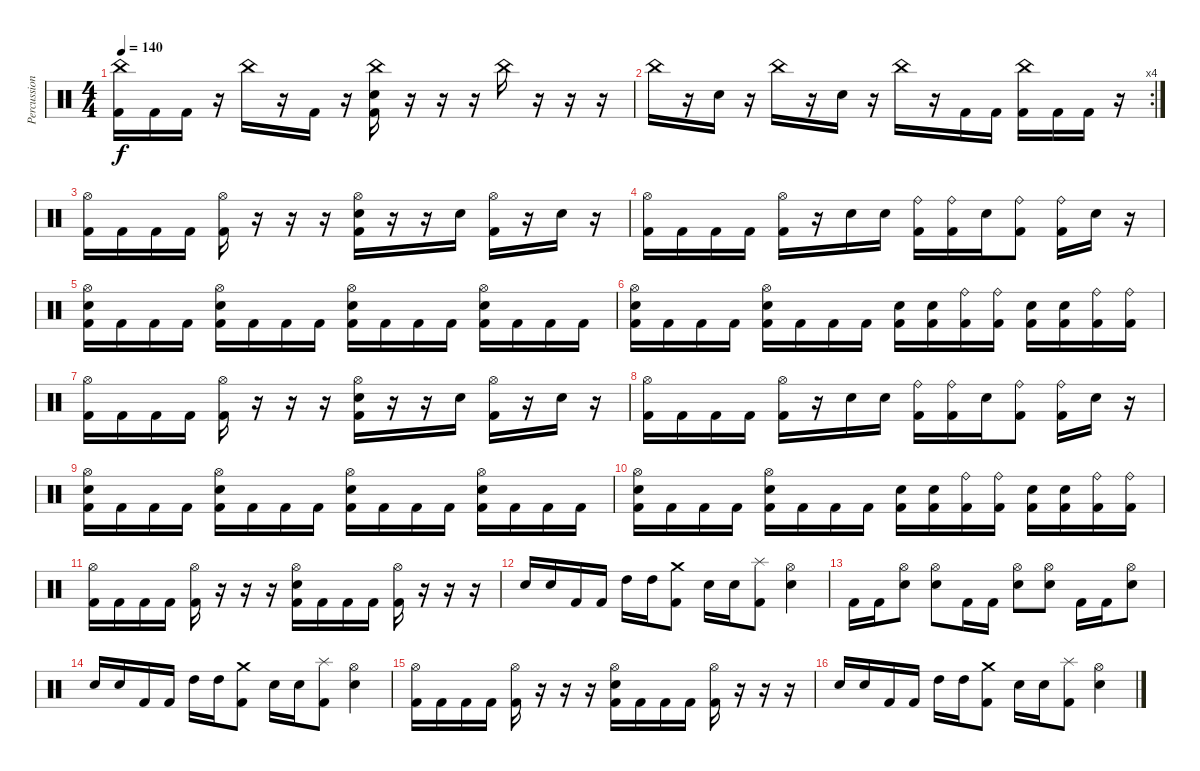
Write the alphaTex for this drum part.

\track ("Percussion" "Percussion") {instrument percussion}
\staff {score}
\articulation defaults
\ts (4 4)
\tempo 140
\clef neutral
\ks c
("China (hit)" "Kick (hit) 2").16{dy f} "Kick (hit) 2".16 "Kick (hit) 2".16 r.16 "China (hit)".16 r.16 "Kick (hit) 2".16 r.16 ("China (hit)" "Electric Snare (hit)" "Kick (hit) 2").16 r.16 r.16 r.16 "China (hit)".16 r.16 r.16 r.16 |
\rc 4 "China (hit)".16
r.16 "Electric Snare (hit)".16 r.16 "China (hit)".16 r.16 "Electric Snare (hit)".16 r.16 "China (hit)".16 r.16 "Kick (hit) 2".16 "Kick (hit) 2".16 ("China (hit)" "Kick (hit) 2").16 "Kick (hit) 2".16 "Kick (hit) 2".16 r.16 |
("Hi-Hat (open)" "Kick (hit) 2").16 "Kick (hit) 2".16 "Kick (hit) 2".16 "Kick (hit) 2".16 ("Hi-Hat (open)" "Kick (hit) 2").16 r.16 r.16 r.16 ("Hi-Hat (open)" "Electric Snare (hit)" "Kick (hit) 2").16 r.16 r.16 "Electric Snare (hit)".16 ("Hi-Hat (open)" "Kick (hit) 2").16 r.16 "Electric Snare (hit)".16 r.16 |
("Hi-Hat (open)" "Kick (hit) 2").16 "Kick (hit) 2".16 "Kick (hit) 2".16 "Kick (hit) 2".16 ("Hi-Hat (open)" "Kick (hit) 2").16 r.16 "Electric Snare (hit)".16 "Electric Snare (hit)".16 ("Ride (bell)" "Kick (hit) 2").16 ("Ride (bell)" "Kick (hit) 2").16 "Electric Snare (hit)".16 ("Ride (bell)" "Kick (hit) 2").8 ("Ride (bell)" "Kick (hit) 2").16 "Electric Snare (hit)".16 r.16 |
("Hi-Hat (open)" "Electric Snare (hit)" "Kick (hit) 2").16 "Kick (hit) 2".16 "Kick (hit) 2".16 "Kick (hit) 2".16 ("Hi-Hat (open)" "Electric Snare (hit)" "Kick (hit) 2").16 "Kick (hit) 2".16 "Kick (hit) 2".16 "Kick (hit) 2".16 ("Hi-Hat (open)" "Electric Snare (hit)" "Kick (hit) 2").16 "Kick (hit) 2".16 "Kick (hit) 2".16 "Kick (hit) 2".16 ("Hi-Hat (open)" "Electric Snare (hit)" "Kick (hit) 2").16 "Kick (hit) 2".16 "Kick (hit) 2".16 "Kick (hit) 2".16 |
("Hi-Hat (open)" "Electric Snare (hit)" "Kick (hit) 2").16 "Kick (hit) 2".16 "Kick (hit) 2".16 "Kick (hit) 2".16 ("Hi-Hat (open)" "Electric Snare (hit)" "Kick (hit) 2").16 "Kick (hit) 2".16 "Kick (hit) 2".16 "Kick (hit) 2".16 ("Electric Snare (hit)" "Kick (hit) 2").16 ("Electric Snare (hit)" "Kick (hit) 2").16 ("Ride (bell)" "Kick (hit) 2").16 ("Ride (bell)" "Kick (hit) 2").16 ("Electric Snare (hit)" "Kick (hit) 2").16 ("Electric Snare (hit)" "Kick (hit) 2").16 ("Ride (bell)" "Kick (hit) 2").16 ("Ride (bell)" "Kick (hit) 2").16 |
("Hi-Hat (open)" "Kick (hit) 2").16 "Kick (hit) 2".16 "Kick (hit) 2".16 "Kick (hit) 2".16 ("Hi-Hat (open)" "Kick (hit) 2").16 r.16 r.16 r.16 ("Hi-Hat (open)" "Electric Snare (hit)" "Kick (hit) 2").16 r.16 r.16 "Electric Snare (hit)".16 ("Hi-Hat (open)" "Kick (hit) 2").16 r.16 "Electric Snare (hit)".16 r.16 |
("Hi-Hat (open)" "Kick (hit) 2").16 "Kick (hit) 2".16 "Kick (hit) 2".16 "Kick (hit) 2".16 ("Hi-Hat (open)" "Kick (hit) 2").16 r.16 "Electric Snare (hit)".16 "Electric Snare (hit)".16 ("Ride (bell)" "Kick (hit) 2").16 ("Ride (bell)" "Kick (hit) 2").16 "Electric Snare (hit)".16 ("Ride (bell)" "Kick (hit) 2").8 ("Ride (bell)" "Kick (hit) 2").16 "Electric Snare (hit)".16 r.16 |
("Hi-Hat (open)" "Electric Snare (hit)" "Kick (hit) 2").16 "Kick (hit) 2".16 "Kick (hit) 2".16 "Kick (hit) 2".16 ("Hi-Hat (open)" "Electric Snare (hit)" "Kick (hit) 2").16 "Kick (hit) 2".16 "Kick (hit) 2".16 "Kick (hit) 2".16 ("Hi-Hat (open)" "Electric Snare (hit)" "Kick (hit) 2").16 "Kick (hit) 2".16 "Kick (hit) 2".16 "Kick (hit) 2".16 ("Hi-Hat (open)" "Electric Snare (hit)" "Kick (hit) 2").16 "Kick (hit) 2".16 "Kick (hit) 2".16 "Kick (hit) 2".16 |
("Hi-Hat (open)" "Electric Snare (hit)" "Kick (hit) 2").16 "Kick (hit) 2".16 "Kick (hit) 2".16 "Kick (hit) 2".16 ("Hi-Hat (open)" "Electric Snare (hit)" "Kick (hit) 2").16 "Kick (hit) 2".16 "Kick (hit) 2".16 "Kick (hit) 2".16 ("Electric Snare (hit)" "Kick (hit) 2").16 ("Electric Snare (hit)" "Kick (hit) 2").16 ("Ride (bell)" "Kick (hit) 2").16 ("Ride (bell)" "Kick (hit) 2").16 ("Electric Snare (hit)" "Kick (hit) 2").16 ("Electric Snare (hit)" "Kick (hit) 2").16 ("Ride (bell)" "Kick (hit) 2").16 ("Ride (bell)" "Kick (hit) 2").16 |
("Hi-Hat (open)" "Kick (hit) 2").16 "Kick (hit) 2".16 "Kick (hit) 2".16 "Kick (hit) 2".16 ("Hi-Hat (open)" "Kick (hit) 2").16 r.16 r.16 r.16 ("Hi-Hat (open)" "Electric Snare (hit)" "Kick (hit) 2").16 "Kick (hit) 2".16 "Kick (hit) 2".16 "Kick (hit) 2".16 ("Hi-Hat (open)" "Kick (hit) 2").16 r.16 r.16 r.16 |
"Electric Snare (hit)".16 "Electric Snare (hit)".16 "Kick (hit) 2".16 "Kick (hit) 2".16 "High Tom (hit)".16 "High Tom (hit)".16 ("Crash medium (hit)" "Kick (hit) 2").8 "Electric Snare (hit)".16 "Electric Snare (hit)".16 ("Splash (hit)" "Kick (hit) 2").8 ("Hi-Hat (open)" "Electric Snare (hit)").4 |
"Kick (hit) 2".16 "Kick (hit) 2".16 ("Hi-Hat (open)" "Electric Snare (hit)").8 ("Hi-Hat (open)" "Electric Snare (hit)").8 "Kick (hit) 2".16 "Kick (hit) 2".16 ("Hi-Hat (open)" "Electric Snare (hit)").8 ("Hi-Hat (open)" "Electric Snare (hit)").8 "Kick (hit) 2".16 "Kick (hit) 2".16 ("Hi-Hat (open)" "Electric Snare (hit)").8 |
"Electric Snare (hit)".16 "Electric Snare (hit)".16 "Kick (hit) 2".16 "Kick (hit) 2".16 "High Tom (hit)".16 "High Tom (hit)".16 ("Crash medium (hit)" "Kick (hit) 2").8 "Electric Snare (hit)".16 "Electric Snare (hit)".16 ("Splash (hit)" "Kick (hit) 2").8 ("Hi-Hat (open)" "Electric Snare (hit)").4 |
("Hi-Hat (open)" "Kick (hit) 2").16 "Kick (hit) 2".16 "Kick (hit) 2".16 "Kick (hit) 2".16 ("Hi-Hat (open)" "Kick (hit) 2").16 r.16 r.16 r.16 ("Hi-Hat (open)" "Electric Snare (hit)" "Kick (hit) 2").16 "Kick (hit) 2".16 "Kick (hit) 2".16 "Kick (hit) 2".16 ("Hi-Hat (open)" "Kick (hit) 2").16 r.16 r.16 r.16 |
"Electric Snare (hit)".16 "Electric Snare (hit)".16 "Kick (hit) 2".16 "Kick (hit) 2".16 "High Tom (hit)".16 "High Tom (hit)".16 ("Crash medium (hit)" "Kick (hit) 2").8 "Electric Snare (hit)".16 "Electric Snare (hit)".16 ("Splash (hit)" "Kick (hit) 2").8 ("Hi-Hat (open)" "Electric Snare (hit)").4
